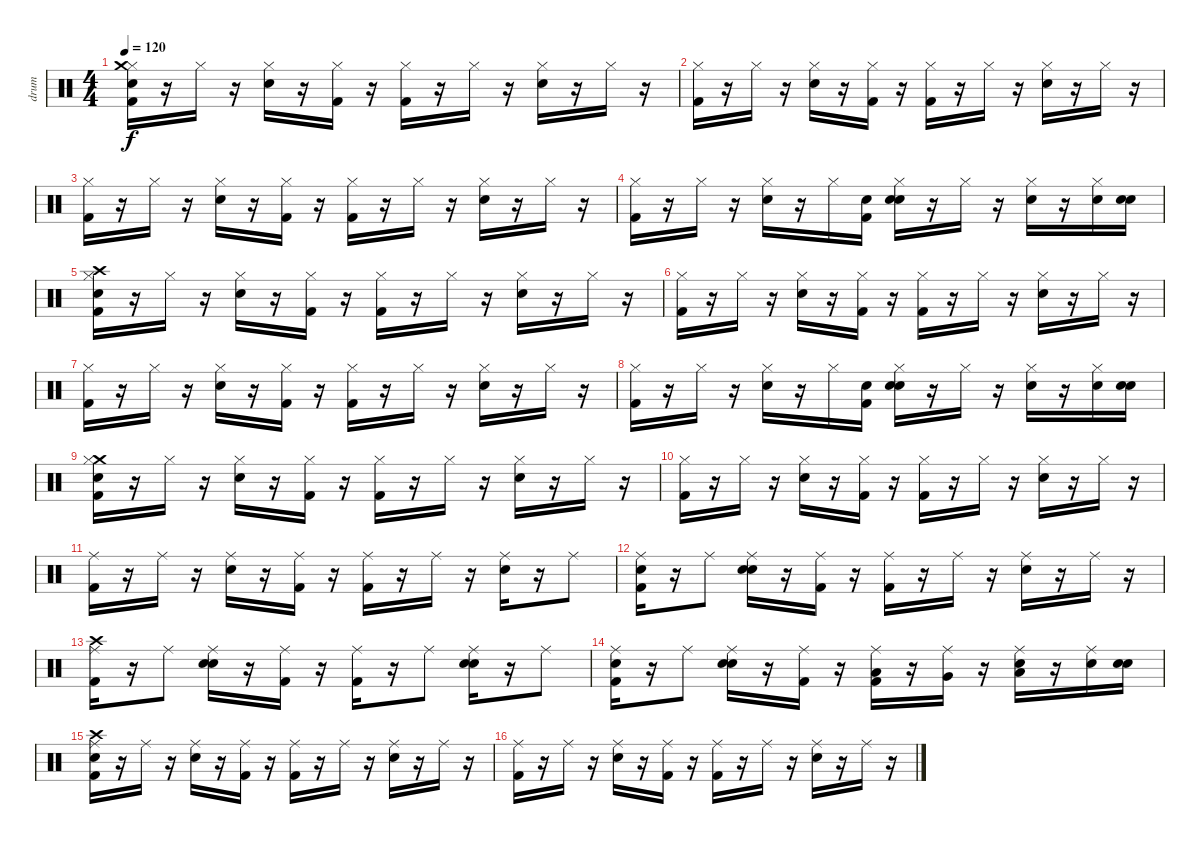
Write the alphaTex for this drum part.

\track ("drum" "drum") {instrument percussion}
\staff {score}
\articulation defaults
\ts (4 4)
\tempo 120
\clef neutral
\ks c
("Snare (hit)" "Kick (hit) 2" "Hi-Hat (closed)" "Crash medium (hit)").16{dy f} r.16 "Hi-Hat (closed)".16 r.16 ("Hi-Hat (closed)" "Snare (hit) 2").16 r.16 ("Hi-Hat (closed)" "Kick (hit) 2").16 r.16 ("Hi-Hat (closed)" "Kick (hit) 2").16 r.16 "Hi-Hat (closed)".16 r.16 ("Snare (hit) 2" "Hi-Hat (closed)").16 r.16 "Hi-Hat (closed)".16 r.16 |
("Kick (hit) 2" "Hi-Hat (closed)").16 r.16 "Hi-Hat (closed)".16 r.16 ("Hi-Hat (closed)" "Snare (hit) 2").16 r.16 ("Hi-Hat (closed)" "Kick (hit) 2").16 r.16 ("Kick (hit) 2" "Hi-Hat (closed)").16 r.16 "Hi-Hat (closed)".16 r.16 ("Snare (hit) 2" "Hi-Hat (closed)").16 r.16 "Hi-Hat (closed)".16 r.16 |
("Kick (hit) 2" "Hi-Hat (closed)").16 r.16 "Hi-Hat (closed)".16 r.16 ("Snare (hit) 2" "Hi-Hat (closed)").16 r.16 ("Hi-Hat (closed)" "Kick (hit) 2").16 r.16 ("Hi-Hat (closed)" "Kick (hit) 2").16 r.16 "Hi-Hat (closed)".16 r.16 ("Hi-Hat (closed)" "Snare (hit) 2").16 r.16 "Hi-Hat (closed)".16 r.16 |
("Hi-Hat (closed)" "Kick (hit) 2").16 r.16 "Hi-Hat (closed)".16 r.16 ("Snare (hit) 2" "Hi-Hat (closed)").16 r.16 "Hi-Hat (closed)".16 ("Snare (hit)" "Kick (hit) 2").16 ("Snare (hit)" "Hi-Hat (closed)" "Snare (hit) 2").16 r.16 "Hi-Hat (closed)".16 r.16 ("Snare (hit) 2" "Hi-Hat (closed)").16 r.16 ("Snare (hit) 2" "Hi-Hat (closed)").16 ("Snare (hit)" "Snare (hit) 2").16 |
("Snare (hit)" "Crash high (hit)" "Kick (hit) 2" "Hi-Hat (closed)").16 r.16 "Hi-Hat (closed)".16 r.16 ("Snare (hit) 2" "Hi-Hat (closed)").16 r.16 ("Hi-Hat (closed)" "Kick (hit) 2").16 r.16 ("Hi-Hat (closed)" "Kick (hit) 2").16 r.16 "Hi-Hat (closed)".16 r.16 ("Snare (hit) 2" "Hi-Hat (closed)").16 r.16 "Hi-Hat (closed)".16 r.16 |
("Hi-Hat (closed)" "Kick (hit) 2").16 r.16 "Hi-Hat (closed)".16 r.16 ("Hi-Hat (closed)" "Snare (hit) 2").16 r.16 ("Hi-Hat (closed)" "Kick (hit) 2").16 r.16 ("Hi-Hat (closed)" "Kick (hit) 2").16 r.16 "Hi-Hat (closed)".16 r.16 ("Snare (hit) 2" "Hi-Hat (closed)").16 r.16 "Hi-Hat (closed)".16 r.16 |
("Hi-Hat (closed)" "Kick (hit) 2").16 r.16 "Hi-Hat (closed)".16 r.16 ("Hi-Hat (closed)" "Snare (hit) 2").16 r.16 ("Kick (hit) 2" "Hi-Hat (closed)").16 r.16 ("Kick (hit) 2" "Hi-Hat (closed)").16 r.16 "Hi-Hat (closed)".16 r.16 ("Snare (hit) 2" "Hi-Hat (closed)").16 r.16 "Hi-Hat (closed)".16 r.16 |
("Kick (hit) 2" "Hi-Hat (closed)").16 r.16 "Hi-Hat (closed)".16 r.16 ("Snare (hit) 2" "Hi-Hat (closed)").16 r.16 "Hi-Hat (closed)".16 ("Snare (hit)" "Kick (hit) 2").16 ("Snare (hit)" "Hi-Hat (closed)" "Snare (hit) 2").16 r.16 "Hi-Hat (closed)".16 r.16 ("Snare (hit) 2" "Hi-Hat (closed)").16 r.16 ("Snare (hit) 2" "Hi-Hat (closed)").16 ("Snare (hit)" "Snare (hit) 2").16 |
("Snare (hit)" "Crash medium (hit)" "Hi-Hat (closed)" "Kick (hit) 2").16 r.16 "Hi-Hat (closed)".16 r.16 ("Hi-Hat (closed)" "Snare (hit) 2").16 r.16 ("Hi-Hat (closed)" "Kick (hit) 2").16 r.16 ("Kick (hit) 2" "Hi-Hat (closed)").16 r.16 "Hi-Hat (closed)".16 r.16 ("Snare (hit) 2" "Hi-Hat (closed)").16 r.16 "Hi-Hat (closed)".16 r.16 |
("Kick (hit) 2" "Hi-Hat (closed)").16 r.16 "Hi-Hat (closed)".16 r.16 ("Hi-Hat (closed)" "Snare (hit) 2").16 r.16 ("Hi-Hat (closed)" "Kick (hit) 2").16 r.16 ("Hi-Hat (closed)" "Kick (hit) 2").16 r.16 "Hi-Hat (closed)".16 r.16 ("Snare (hit) 2" "Hi-Hat (closed)").16 r.16 "Hi-Hat (closed)".16 r.16 |
("Kick (hit) 2" "Ride (middle)").16 r.16 "Ride (middle)".16 r.16 ("Snare (hit) 2" "Ride (middle)").16 r.16 ("Ride (middle)" "Kick (hit) 2").16 r.16 ("Kick (hit) 2" "Ride (middle)").16 r.16 "Ride (middle)".16 r.16 ("Snare (hit) 2" "Ride (middle)").16 r.16 "Ride (middle)".8 |
("Snare (hit)" "Kick (hit) 2" "Ride (middle)").16 r.16 "Ride (middle)".8 ("Snare (hit)" "Snare (hit) 2" "Ride (middle)").16 r.16 ("Kick (hit) 2" "Ride (middle)").16 r.16 ("Ride (middle)" "Kick (hit) 2").16 r.16 "Ride (middle)".16 r.16 ("Snare (hit) 2" "Ride (middle)").16 r.16 "Ride (middle)".16 r.16 |
("Kick (hit) 2" "Ride (middle)" "Crash high (hit)").16 r.16 "Ride (middle)".8 ("Snare (hit)" "Ride (middle)" "Snare (hit) 2").16 r.16 ("Ride (middle)" "Kick (hit) 2").16 r.16 ("Kick (hit) 2" "Ride (middle)").16 r.16 "Ride (middle)".8 ("Snare (hit)" "Ride (middle)" "Snare (hit) 2").16 r.16 "Ride (middle)".8 |
("Snare (hit)" "Kick (hit) 2" "Ride (middle)").16 r.16 "Ride (middle)".8 ("Snare (hit)" "Ride (middle)" "Snare (hit) 2").16 r.16 ("Ride (middle)" "Kick (hit) 2").16 r.16 ("Kick (hit) 2" "Low Tom (hit)" "Ride (middle)").16 r.16 ("Very Low Tom (hit)" "Ride (middle)").16 r.16 ("Snare (hit) 2" "Ride (middle)" "Low Floor Tom (hit)").16 r.16 ("Ride (middle)" "Snare (hit) 2").16 ("Snare (hit)" "Snare (hit) 2").16 |
("Snare (hit)" "Ride (middle)" "Kick (hit) 2" "Crash high (hit)").16 r.16 "Ride (middle)".16 r.16 ("Snare (hit) 2" "Ride (middle)").16 r.16 ("Ride (middle)" "Kick (hit) 2").16 r.16 ("Ride (middle)" "Kick (hit) 2").16 r.16 "Ride (middle)".16 r.16 ("Ride (middle)" "Snare (hit) 2").16 r.16 "Ride (middle)".16 r.16 |
("Ride (middle)" "Kick (hit) 2").16 r.16 "Ride (middle)".16 r.16 ("Snare (hit) 2" "Ride (middle)").16 r.16 ("Ride (middle)" "Kick (hit) 2").16 r.16 ("Ride (middle)" "Kick (hit) 2").16 r.16 "Ride (middle)".16 r.16 ("Ride (middle)" "Snare (hit) 2").16 r.16 "Ride (middle)".16 r.16
